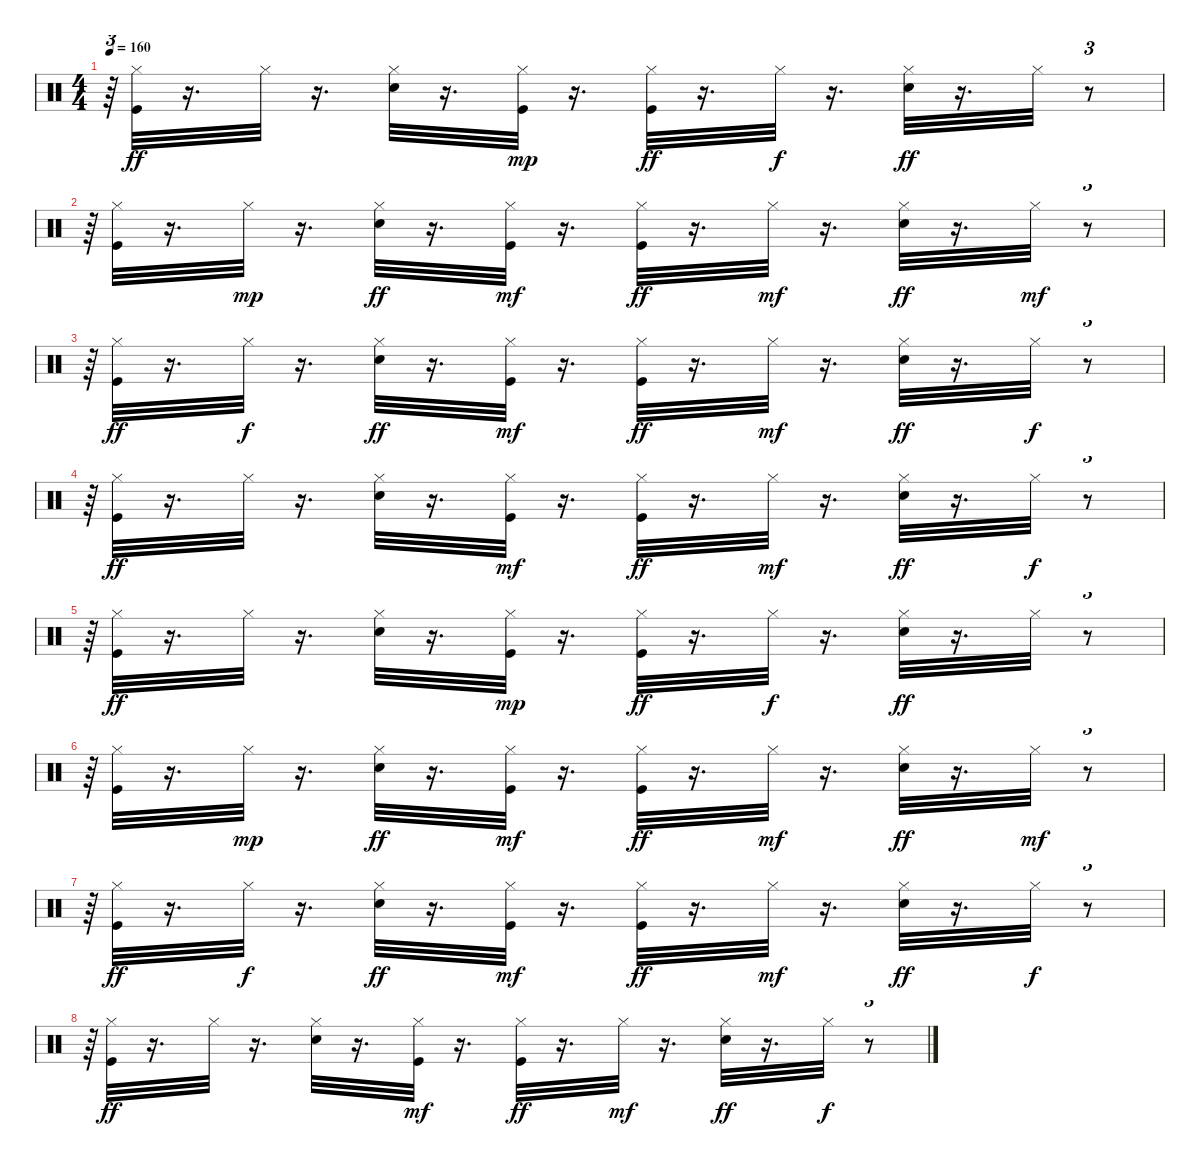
\track "" {instrument percussion}
\staff {score}
\articulation defaults
\ts (4 4)
\tempo 160
\clef neutral
\ks c
r.64{tu (3 2) dy f} ("Kick (hit)" "Hi-Hat (closed)").32{dy ff} r.16{d} "Hi-Hat (closed)".32 r.16{d} ("Hi-Hat (closed)" "Electric Snare (hit)").32 r.16{d} ("Kick (hit)" "Hi-Hat (closed)").32{dy mp} r.16{d} ("Kick (hit)" "Hi-Hat (closed)").32{dy ff} r.16{d} "Hi-Hat (closed)".32{dy f} r.16{d} ("Hi-Hat (closed)" "Electric Snare (hit)").32{dy ff} r.16{d} "Hi-Hat (closed)".32 r.8{tu (3 2)} |
r.64{tu (3 2)} ("Kick (hit)" "Hi-Hat (closed)").32 r.16{d} "Hi-Hat (closed)".32{dy mp} r.16{d} ("Hi-Hat (closed)" "Electric Snare (hit)").32{dy ff} r.16{d} ("Kick (hit)" "Hi-Hat (closed)").32{dy mf} r.16{d} ("Kick (hit)" "Hi-Hat (closed)").32{dy ff} r.16{d} "Hi-Hat (closed)".32{dy mf} r.16{d} ("Hi-Hat (closed)" "Electric Snare (hit)").32{dy ff} r.16{d} "Hi-Hat (closed)".32{dy mf} r.8{tu (3 2)} |
r.64{tu (3 2)} ("Kick (hit)" "Hi-Hat (closed)").32{dy ff} r.16{d} "Hi-Hat (closed)".32{dy f} r.16{d} ("Hi-Hat (closed)" "Electric Snare (hit)").32{dy ff} r.16{d} ("Kick (hit)" "Hi-Hat (closed)").32{dy mf} r.16{d} ("Kick (hit)" "Hi-Hat (closed)").32{dy ff} r.16{d} "Hi-Hat (closed)".32{dy mf} r.16{d} ("Hi-Hat (closed)" "Electric Snare (hit)").32{dy ff} r.16{d} "Hi-Hat (closed)".32{dy f} r.8{tu (3 2)} |
r.64{tu (3 2)} ("Kick (hit)" "Hi-Hat (closed)").32{dy ff} r.16{d} "Hi-Hat (closed)".32 r.16{d} ("Hi-Hat (closed)" "Electric Snare (hit)").32 r.16{d} ("Kick (hit)" "Hi-Hat (closed)").32{dy mf} r.16{d} ("Kick (hit)" "Hi-Hat (closed)").32{dy ff} r.16{d} "Hi-Hat (closed)".32{dy mf} r.16{d} ("Hi-Hat (closed)" "Electric Snare (hit)").32{dy ff} r.16{d} "Hi-Hat (closed)".32{dy f} r.8{tu (3 2)} |
r.64{tu (3 2)} ("Kick (hit)" "Hi-Hat (closed)").32{dy ff} r.16{d} "Hi-Hat (closed)".32 r.16{d} ("Hi-Hat (closed)" "Electric Snare (hit)").32 r.16{d} ("Kick (hit)" "Hi-Hat (closed)").32{dy mp} r.16{d} ("Kick (hit)" "Hi-Hat (closed)").32{dy ff} r.16{d} "Hi-Hat (closed)".32{dy f} r.16{d} ("Hi-Hat (closed)" "Electric Snare (hit)").32{dy ff} r.16{d} "Hi-Hat (closed)".32 r.8{tu (3 2)} |
r.64{tu (3 2)} ("Kick (hit)" "Hi-Hat (closed)").32 r.16{d} "Hi-Hat (closed)".32{dy mp} r.16{d} ("Hi-Hat (closed)" "Electric Snare (hit)").32{dy ff} r.16{d} ("Kick (hit)" "Hi-Hat (closed)").32{dy mf} r.16{d} ("Kick (hit)" "Hi-Hat (closed)").32{dy ff} r.16{d} "Hi-Hat (closed)".32{dy mf} r.16{d} ("Hi-Hat (closed)" "Electric Snare (hit)").32{dy ff} r.16{d} "Hi-Hat (closed)".32{dy mf} r.8{tu (3 2)} |
r.64{tu (3 2)} ("Kick (hit)" "Hi-Hat (closed)").32{dy ff} r.16{d} "Hi-Hat (closed)".32{dy f} r.16{d} ("Hi-Hat (closed)" "Electric Snare (hit)").32{dy ff} r.16{d} ("Kick (hit)" "Hi-Hat (closed)").32{dy mf} r.16{d} ("Kick (hit)" "Hi-Hat (closed)").32{dy ff} r.16{d} "Hi-Hat (closed)".32{dy mf} r.16{d} ("Hi-Hat (closed)" "Electric Snare (hit)").32{dy ff} r.16{d} "Hi-Hat (closed)".32{dy f} r.8{tu (3 2)} |
r.64{tu (3 2)} ("Kick (hit)" "Hi-Hat (closed)").32{dy ff} r.16{d} "Hi-Hat (closed)".32 r.16{d} ("Hi-Hat (closed)" "Electric Snare (hit)").32 r.16{d} ("Kick (hit)" "Hi-Hat (closed)").32{dy mf} r.16{d} ("Kick (hit)" "Hi-Hat (closed)").32{dy ff} r.16{d} "Hi-Hat (closed)".32{dy mf} r.16{d} ("Hi-Hat (closed)" "Electric Snare (hit)").32{dy ff} r.16{d} "Hi-Hat (closed)".32{dy f} r.8{tu (3 2)}
